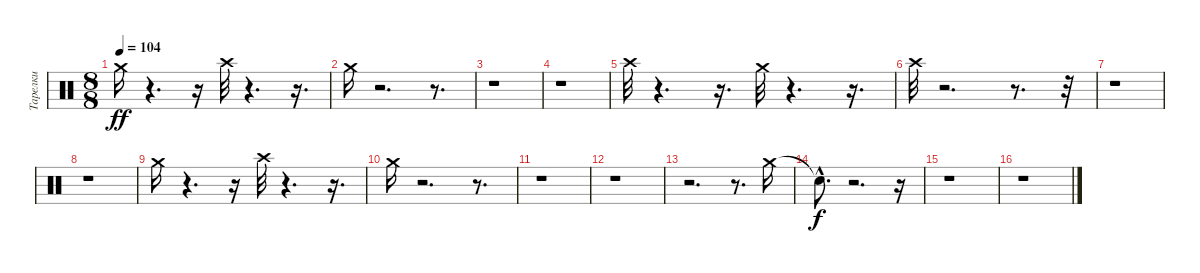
\track ("Тарелки" "Тарелки") {instrument percussion}
\staff {score}
\articulation defaults
\ts (8 8)
\tempo 104
\clef neutral
\ks c "Crash medium (hit)".16{dy ff}
r.4{d} r.16 "Crash high (hit)".32 r.4{d} r.16{d} |
"Crash medium (hit)".16 r.2{d} r.8{d} |
r.1 |
r.1 |
"Crash high (hit)".32 r.4{d} r.16{d} "Crash medium (hit)".32 r.4{d} r.16{d} |
"Crash high (hit)".32 r.2{d} r.8{d} r.32 |
r.1 |
r.1 |
"Crash medium (hit)".16 r.4{d} r.16 "Crash high (hit)".32 r.4{d} r.16{d} |
"Crash medium (hit)".16 r.2{d} r.8{d} |
r.1 |
r.1 |
r.2{d} r.8{d} "Crash medium (hit)".16 |
"Snare (hit)"{hac t}.8{d dy f} r.2{d} r.16 |
r.1 |
r.1
